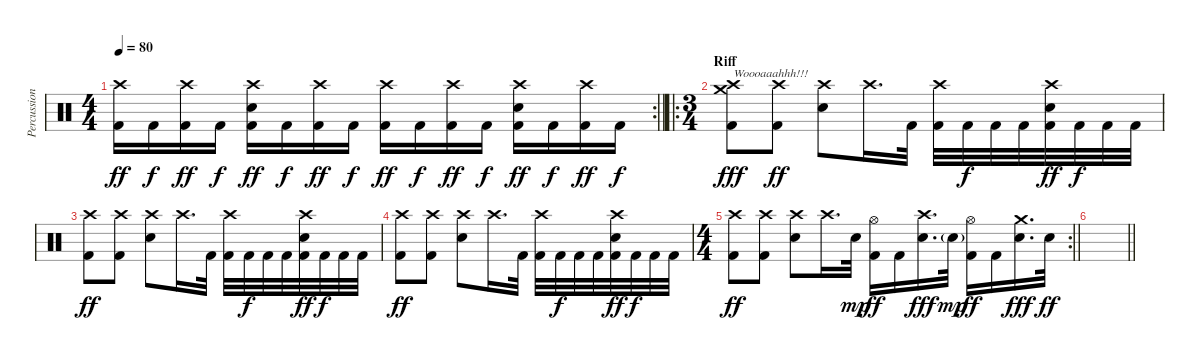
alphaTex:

\track ("Percussion" "Percussion") {instrument percussion}
\staff {score}
\articulation defaults
\rc 2
\ts (4 4)
\tempo 80
\clef neutral
\barLineRight lightlight
\ks c
("Crash high (hit)" "Kick (hit) 2").16{dy ff} "Kick (hit) 2".16{dy f} ("Crash high (hit)" "Kick (hit) 2").16{dy ff} "Kick (hit) 2".16{dy f} ("Crash high (hit)" "Electric Snare (hit)" "Kick (hit) 2").16{dy ff} "Kick (hit) 2".16{dy f} ("Crash high (hit)" "Kick (hit) 2").16{dy ff} "Kick (hit) 2".16{dy f} ("Crash high (hit)" "Kick (hit) 2").16{dy ff} "Kick (hit) 2".16{dy f} ("Crash high (hit)" "Kick (hit) 2").16{dy ff} "Kick (hit) 2".16{dy f} ("Crash high (hit)" "Electric Snare (hit)" "Kick (hit) 2").16{dy ff} "Kick (hit) 2".16{dy f} ("Crash high (hit)" "Kick (hit) 2").16{dy ff} "Kick (hit) 2".16{dy f} |
\ro
\ts (3 4)
\section ("" "Riff")
("Crash high (hit)" "Crash medium (hit)" "Kick (hit) 2").8{txt "Woooaaahhh!!!" dy fff} ("Crash high (hit)" "Kick (hit) 2").8{dy ff} ("Crash high (hit)" "Electric Snare (hit)").8 "Crash high (hit)".16{d} "Kick (hit) 2".32 ("Crash high (hit)" "Kick (hit) 2").32 "Kick (hit) 2".32{dy f} "Kick (hit) 2".32 "Kick (hit) 2".32 ("Crash high (hit)" "Electric Snare (hit)" "Kick (hit) 2").32{dy ff} "Kick (hit) 2".32{dy f} "Kick (hit) 2".32 "Kick (hit) 2".32 |
("Crash high (hit)" "Kick (hit) 2").8{dy ff} ("Crash high (hit)" "Kick (hit) 2").8 ("Crash high (hit)" "Electric Snare (hit)").8 "Crash high (hit)".16{d} "Kick (hit) 2".32 ("Crash high (hit)" "Kick (hit) 2").32 "Kick (hit) 2".32{dy f} "Kick (hit) 2".32 "Kick (hit) 2".32 ("Crash high (hit)" "Electric Snare (hit)" "Kick (hit) 2").32{dy ff} "Kick (hit) 2".32{dy f} "Kick (hit) 2".32 "Kick (hit) 2".32 |
("Crash high (hit)" "Kick (hit) 2").8{dy ff} ("Crash high (hit)" "Kick (hit) 2").8 ("Crash high (hit)" "Electric Snare (hit)").8 "Crash high (hit)".16{d} "Kick (hit) 2".32 ("Crash high (hit)" "Kick (hit) 2").32 "Kick (hit) 2".32{dy f} "Kick (hit) 2".32 "Kick (hit) 2".32 ("Crash high (hit)" "Electric Snare (hit)" "Kick (hit) 2").32{dy ff} "Kick (hit) 2".32{dy f} "Kick (hit) 2".32 "Kick (hit) 2".32 |
\rc 2
\ts (4 4)
\barLineRight lightlight
("Crash high (hit)" "Kick (hit) 2").8{dy ff} ("Crash high (hit)" "Kick (hit) 2").8 ("Crash high (hit)" "Electric Snare (hit)").8 "Crash high (hit)".16{d} "Electric Snare (hit)".32{dy mp} ("Hi-Hat (open)" "Kick (hit) 2").16{dy ff} "Kick (hit) 2".16 ("Crash high (hit)" "Electric Snare (hit)").16{d dy fff} "Electric Snare (hit)"{g}.32{dy mp} ("Hi-Hat (open)" "Kick (hit) 2").16{dy ff} "Kick (hit) 2".16 ("Crash medium (hit)" "Electric Snare (hit)").16{d dy fff} "Electric Snare (hit)".32{dy ff} |
\barLineRight lightlight
